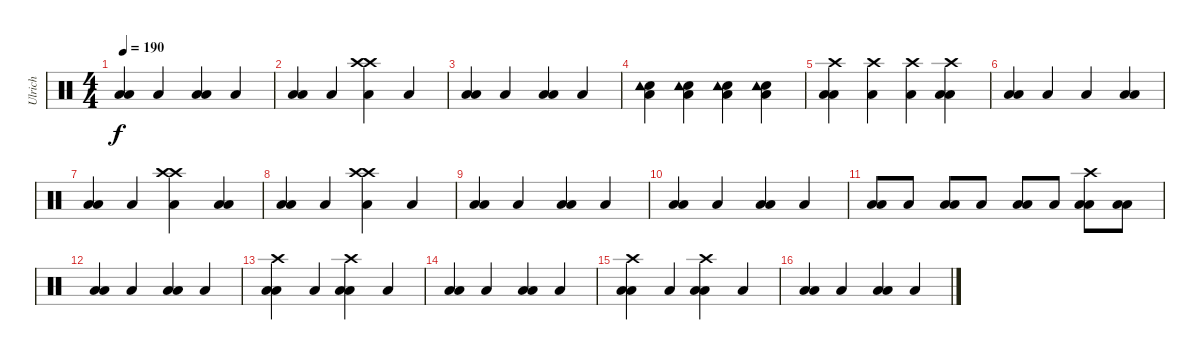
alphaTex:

\track ("Ulrich" "Ulrich") {instrument percussion}
\staff {score}
\articulation defaults
\ts (4 4)
\tempo 190
\clef neutral
\ks c
("Low Tom (hit)" "Low Tom (hit)").4{dy f} "Low Tom (hit)".4 ("Low Tom (hit)" "Low Tom (hit)").4 "Low Tom (hit)".4 |
("Low Tom (hit)" "Low Tom (hit)").4 "Low Tom (hit)".4 ("Low Tom (hit)" "Crash high (hit)" "Crash high (hit)").4 "Low Tom (hit)".4 |
("Low Tom (hit)" "Low Tom (hit)").4 "Low Tom (hit)".4 ("Low Tom (hit)" "Low Tom (hit)").4 "Low Tom (hit)".4 |
("Low Tom (hit)" "Snare (hit)" "Tambourine (hit)").4 ("Low Tom (hit)" "Snare (hit)" "Tambourine (hit)").4 ("Low Tom (hit)" "Snare (hit)" "Tambourine (hit)").4 ("Low Tom (hit)" "Snare (hit)" "Tambourine (hit)").4 |
("Low Tom (hit)" "Low Tom (hit)" "Crash high (hit)").4 ("Low Tom (hit)" "Crash high (hit)").4 ("Low Tom (hit)" "Crash high (hit)").4 ("Low Tom (hit)" "Low Tom (hit)" "Crash high (hit)").4 |
("Low Tom (hit)" "Low Tom (hit)").4 "Low Tom (hit)".4 "Low Tom (hit)".4 ("Low Tom (hit)" "Low Tom (hit)").4 |
("Low Tom (hit)" "Low Tom (hit)").4 "Low Tom (hit)".4 ("Low Tom (hit)" "Crash high (hit)" "Crash high (hit)").4 ("Low Tom (hit)" "Low Tom (hit)").4 |
("Low Tom (hit)" "Low Tom (hit)").4 "Low Tom (hit)".4 ("Low Tom (hit)" "Crash high (hit)" "Crash high (hit)").4 "Low Tom (hit)".4 |
("Low Tom (hit)" "Low Tom (hit)").4 "Low Tom (hit)".4 ("Low Tom (hit)" "Low Tom (hit)").4 "Low Tom (hit)".4 |
("Low Tom (hit)" "Low Tom (hit)").4 "Low Tom (hit)".4 ("Low Tom (hit)" "Low Tom (hit)").4 "Low Tom (hit)".4 |
("Low Tom (hit)" "Low Tom (hit)").8 "Low Tom (hit)".8 ("Low Tom (hit)" "Low Tom (hit)").8 "Low Tom (hit)".8 ("Low Tom (hit)" "Low Tom (hit)").8 "Low Tom (hit)".8 ("Low Tom (hit)" "Low Tom (hit)" "Crash high (hit)").8 ("Low Tom (hit)" "Low Tom (hit)").8 |
("Low Tom (hit)" "Low Tom (hit)").4 "Low Tom (hit)".4 ("Low Tom (hit)" "Low Tom (hit)").4 "Low Tom (hit)".4 |
("Low Tom (hit)" "Low Tom (hit)" "Crash high (hit)").4 "Low Tom (hit)".4 ("Low Tom (hit)" "Low Tom (hit)" "Crash high (hit)").4 "Low Tom (hit)".4 |
("Low Tom (hit)" "Low Tom (hit)").4 "Low Tom (hit)".4 ("Low Tom (hit)" "Low Tom (hit)").4 "Low Tom (hit)".4 |
("Low Tom (hit)" "Low Tom (hit)" "Crash high (hit)").4 "Low Tom (hit)".4 ("Low Tom (hit)" "Low Tom (hit)" "Crash high (hit)").4 "Low Tom (hit)".4 |
("Low Tom (hit)" "Low Tom (hit)").4 "Low Tom (hit)".4 ("Low Tom (hit)" "Low Tom (hit)").4 "Low Tom (hit)".4
